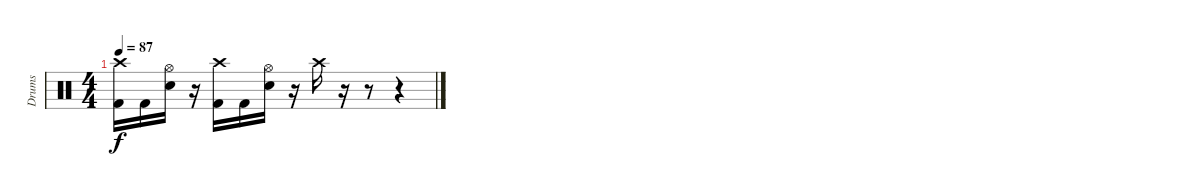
\track ("Drums" "Drums") {instrument percussion}
\staff {score}
\articulation defaults
\ts (4 4)
\tempo 87
\clef neutral
\ks c
("Crash high (hit)" "Kick (hit) 2").16{dy f} "Kick (hit) 2".16 ("Hi-Hat (open)" "Electric Snare (hit)").16 r.16 ("Crash high (hit)" "Kick (hit) 2").16 "Kick (hit) 2".16 ("Hi-Hat (open)" "Electric Snare (hit)").16 r.16 "Crash high (hit)".16 r.16 r.8 r.4
